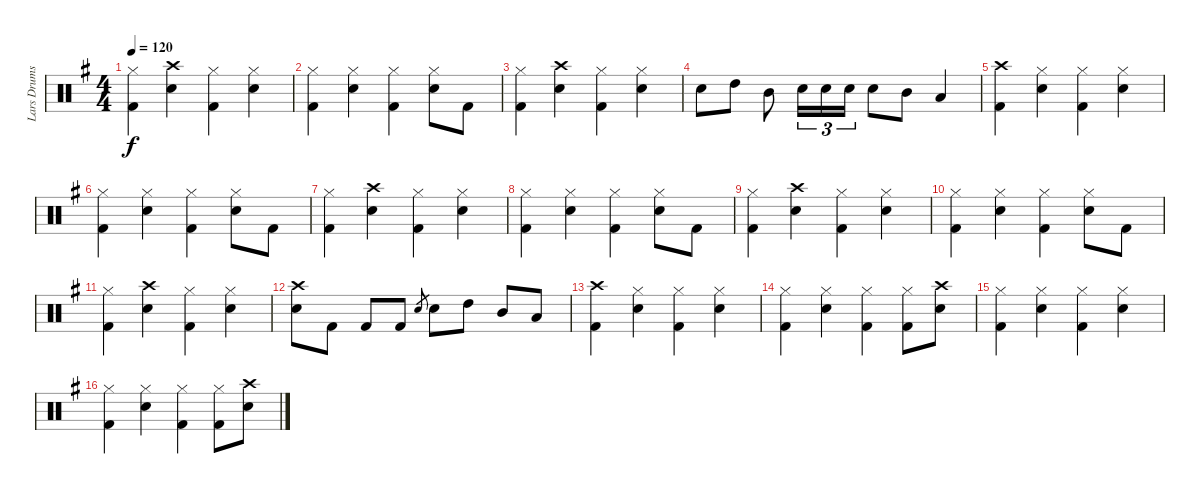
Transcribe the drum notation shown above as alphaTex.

\track ("Lars Drums" "Lars Drums") {instrument percussion}
\staff {score}
\articulation defaults
\ts (4 4)
\tempo 120
\clef neutral
\ks g
("Hi-Hat (closed)" "Kick (hit) 2").4{dy f} ("Crash high (hit)" "Snare (hit) 2").4 ("Hi-Hat (closed)" "Kick (hit) 2").4 ("Hi-Hat (closed)" "Snare (hit) 2").4 |
("Hi-Hat (closed)" "Kick (hit) 2").4 ("Hi-Hat (closed)" "Snare (hit) 2").4 ("Hi-Hat (closed)" "Kick (hit) 2").4 ("Hi-Hat (closed)" "Snare (hit) 2").8 "Kick (hit) 2".8 |
("Hi-Hat (closed)" "Kick (hit) 2").4 ("Crash high (hit)" "Snare (hit) 2").4 ("Hi-Hat (closed)" "Kick (hit) 2").4 ("Hi-Hat (closed)" "Snare (hit) 2").4 |
"Snare (hit) 2".8 "High Tom (hit)".8 "Mid Tom (hit)".8 "Snare (hit) 2".16{tu (3 2)} "Snare (hit) 2".16{tu (3 2)} "Snare (hit) 2".16{tu (3 2)} "Snare (hit) 2".8 "Mid Tom (hit)".8 "Low Tom (hit)".4 |
("Crash high (hit)" "Kick (hit) 2").4 ("Hi-Hat (closed)" "Snare (hit) 2").4 ("Hi-Hat (closed)" "Kick (hit) 2").4 ("Hi-Hat (closed)" "Snare (hit) 2").4 |
("Hi-Hat (closed)" "Kick (hit) 2").4 ("Hi-Hat (closed)" "Snare (hit) 2").4 ("Hi-Hat (closed)" "Kick (hit) 2").4 ("Hi-Hat (closed)" "Snare (hit) 2").8 "Kick (hit) 2".8 |
("Hi-Hat (closed)" "Kick (hit) 2").4 ("Crash high (hit)" "Snare (hit) 2").4 ("Hi-Hat (closed)" "Kick (hit) 2").4 ("Hi-Hat (closed)" "Snare (hit) 2").4 |
("Hi-Hat (closed)" "Kick (hit) 2").4 ("Hi-Hat (closed)" "Snare (hit) 2").4 ("Hi-Hat (closed)" "Kick (hit) 2").4 ("Hi-Hat (closed)" "Snare (hit) 2").8 "Kick (hit) 2".8 |
("Hi-Hat (closed)" "Kick (hit) 2").4 ("Crash high (hit)" "Snare (hit) 2").4 ("Hi-Hat (closed)" "Kick (hit) 2").4 ("Hi-Hat (closed)" "Snare (hit) 2").4 |
("Hi-Hat (closed)" "Kick (hit) 2").4 ("Hi-Hat (closed)" "Snare (hit) 2").4 ("Hi-Hat (closed)" "Kick (hit) 2").4 ("Hi-Hat (closed)" "Snare (hit) 2").8 "Kick (hit) 2".8 |
("Hi-Hat (closed)" "Kick (hit) 2").4 ("Crash high (hit)" "Snare (hit) 2").4 ("Hi-Hat (closed)" "Kick (hit) 2").4 ("Hi-Hat (closed)" "Snare (hit) 2").4 |
("Crash high (hit)" "Snare (hit) 2").8 "Kick (hit) 2".8 "Kick (hit) 2".8 "Kick (hit) 2".8 "Snare (hit) 2".8{gr} "Snare (hit) 2".8 "High Tom (hit)".8 "Mid Tom (hit)".8 "Low Tom (hit)".8 |
("Crash high (hit)" "Kick (hit) 2").4 ("Hi-Hat (closed)" "Snare (hit) 2").4 ("Hi-Hat (closed)" "Kick (hit) 2").4 ("Hi-Hat (closed)" "Snare (hit) 2").4 |
("Hi-Hat (closed)" "Kick (hit) 2").4 ("Hi-Hat (closed)" "Snare (hit) 2").4 ("Hi-Hat (closed)" "Kick (hit) 2").4 ("Hi-Hat (closed)" "Kick (hit) 2").8 ("Crash high (hit)" "Snare (hit) 2").8 |
("Hi-Hat (closed)" "Kick (hit) 2").4 ("Hi-Hat (closed)" "Snare (hit) 2").4 ("Hi-Hat (closed)" "Kick (hit) 2").4 ("Hi-Hat (closed)" "Snare (hit) 2").4 |
("Hi-Hat (closed)" "Kick (hit) 2").4 ("Hi-Hat (closed)" "Snare (hit) 2").4 ("Hi-Hat (closed)" "Kick (hit) 2").4 ("Hi-Hat (closed)" "Kick (hit) 2").8 ("Crash high (hit)" "Snare (hit) 2").8
